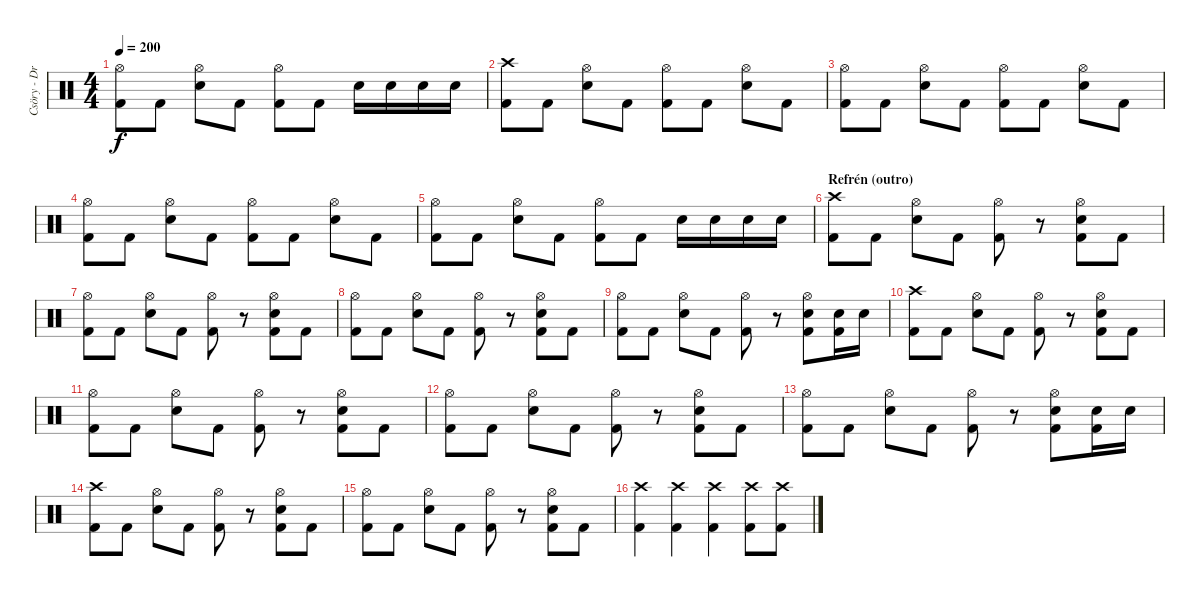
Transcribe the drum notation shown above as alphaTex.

\track ("Csöry - DrumZ" "Csöry - Dr") {instrument percussion}
\staff {score}
\articulation defaults
\ts (4 4)
\tempo 200
\clef neutral
\ks c
("Hi-Hat (open)" "Kick (hit) 2").8{dy f} "Kick (hit) 2".8 ("Hi-Hat (open)" "Snare (hit) 2").8 "Kick (hit) 2".8 ("Hi-Hat (open)" "Kick (hit) 2").8 "Kick (hit) 2".8 "Snare (hit) 2".16 "Snare (hit) 2".16 "Snare (hit) 2".16 "Snare (hit) 2".16 |
("Crash high (hit)" "Kick (hit) 2").8 "Kick (hit) 2".8 ("Hi-Hat (open)" "Snare (hit) 2").8 "Kick (hit) 2".8 ("Hi-Hat (open)" "Kick (hit) 2").8 "Kick (hit) 2".8 ("Hi-Hat (open)" "Snare (hit) 2").8 "Kick (hit) 2".8 |
("Hi-Hat (open)" "Kick (hit) 2").8 "Kick (hit) 2".8 ("Hi-Hat (open)" "Snare (hit) 2").8 "Kick (hit) 2".8 ("Hi-Hat (open)" "Kick (hit) 2").8 "Kick (hit) 2".8 ("Hi-Hat (open)" "Snare (hit) 2").8 "Kick (hit) 2".8 |
("Hi-Hat (open)" "Kick (hit) 2").8 "Kick (hit) 2".8 ("Hi-Hat (open)" "Snare (hit) 2").8 "Kick (hit) 2".8 ("Hi-Hat (open)" "Kick (hit) 2").8 "Kick (hit) 2".8 ("Hi-Hat (open)" "Snare (hit) 2").8 "Kick (hit) 2".8 |
("Hi-Hat (open)" "Kick (hit) 2").8 "Kick (hit) 2".8 ("Hi-Hat (open)" "Snare (hit) 2").8 "Kick (hit) 2".8 ("Hi-Hat (open)" "Kick (hit) 2").8 "Kick (hit) 2".8 "Snare (hit) 2".16 "Snare (hit) 2".16 "Snare (hit) 2".16 "Snare (hit) 2".16 |
\section ("" "Refrén (outro)")
("Crash high (hit)" "Kick (hit) 2").8 "Kick (hit) 2".8 ("Hi-Hat (open)" "Snare (hit) 2").8 "Kick (hit) 2".8 ("Hi-Hat (open)" "Kick (hit) 2").8 r.8 ("Hi-Hat (open)" "Snare (hit) 2" "Kick (hit) 2").8 "Kick (hit) 2".8 |
("Hi-Hat (open)" "Kick (hit) 2").8 "Kick (hit) 2".8 ("Hi-Hat (open)" "Snare (hit) 2").8 "Kick (hit) 2".8 ("Hi-Hat (open)" "Kick (hit) 2").8 r.8 ("Hi-Hat (open)" "Snare (hit) 2" "Kick (hit) 2").8 "Kick (hit) 2".8 |
("Hi-Hat (open)" "Kick (hit) 2").8 "Kick (hit) 2".8 ("Hi-Hat (open)" "Snare (hit) 2").8 "Kick (hit) 2".8 ("Hi-Hat (open)" "Kick (hit) 2").8 r.8 ("Hi-Hat (open)" "Snare (hit) 2" "Kick (hit) 2").8 "Kick (hit) 2".8 |
("Hi-Hat (open)" "Kick (hit) 2").8 "Kick (hit) 2".8 ("Hi-Hat (open)" "Snare (hit) 2").8 "Kick (hit) 2".8 ("Hi-Hat (open)" "Kick (hit) 2").8 r.8 ("Hi-Hat (open)" "Snare (hit) 2" "Kick (hit) 2").8 ("Snare (hit) 2" "Kick (hit) 2").16 "Snare (hit) 2".16 |
("Crash high (hit)" "Kick (hit) 2").8 "Kick (hit) 2".8 ("Hi-Hat (open)" "Snare (hit) 2").8 "Kick (hit) 2".8 ("Hi-Hat (open)" "Kick (hit) 2").8 r.8 ("Hi-Hat (open)" "Snare (hit) 2" "Kick (hit) 2").8 "Kick (hit) 2".8 |
("Hi-Hat (open)" "Kick (hit) 2").8 "Kick (hit) 2".8 ("Hi-Hat (open)" "Snare (hit) 2").8 "Kick (hit) 2".8 ("Hi-Hat (open)" "Kick (hit) 2").8 r.8 ("Hi-Hat (open)" "Snare (hit) 2" "Kick (hit) 2").8 "Kick (hit) 2".8 |
("Hi-Hat (open)" "Kick (hit) 2").8 "Kick (hit) 2".8 ("Hi-Hat (open)" "Snare (hit) 2").8 "Kick (hit) 2".8 ("Hi-Hat (open)" "Kick (hit) 2").8 r.8 ("Hi-Hat (open)" "Snare (hit) 2" "Kick (hit) 2").8 "Kick (hit) 2".8 |
("Hi-Hat (open)" "Kick (hit) 2").8 "Kick (hit) 2".8 ("Hi-Hat (open)" "Snare (hit) 2").8 "Kick (hit) 2".8 ("Hi-Hat (open)" "Kick (hit) 2").8 r.8 ("Hi-Hat (open)" "Snare (hit) 2" "Kick (hit) 2").8 ("Snare (hit) 2" "Kick (hit) 2").16 "Snare (hit) 2".16 |
("Crash high (hit)" "Kick (hit) 2").8 "Kick (hit) 2".8 ("Hi-Hat (open)" "Snare (hit) 2").8 "Kick (hit) 2".8 ("Hi-Hat (open)" "Kick (hit) 2").8 r.8 ("Hi-Hat (open)" "Snare (hit) 2" "Kick (hit) 2").8 "Kick (hit) 2".8 |
("Hi-Hat (open)" "Kick (hit) 2").8 "Kick (hit) 2".8 ("Hi-Hat (open)" "Snare (hit) 2").8 "Kick (hit) 2".8 ("Hi-Hat (open)" "Kick (hit) 2").8 r.8 ("Hi-Hat (open)" "Snare (hit) 2" "Kick (hit) 2").8 "Kick (hit) 2".8 |
("Crash high (hit)" "Kick (hit) 2").4 ("Crash high (hit)" "Kick (hit) 2").4 ("Crash high (hit)" "Kick (hit) 2").4 ("Crash high (hit)" "Kick (hit) 2").8 ("Crash high (hit)" "Kick (hit) 2").8
